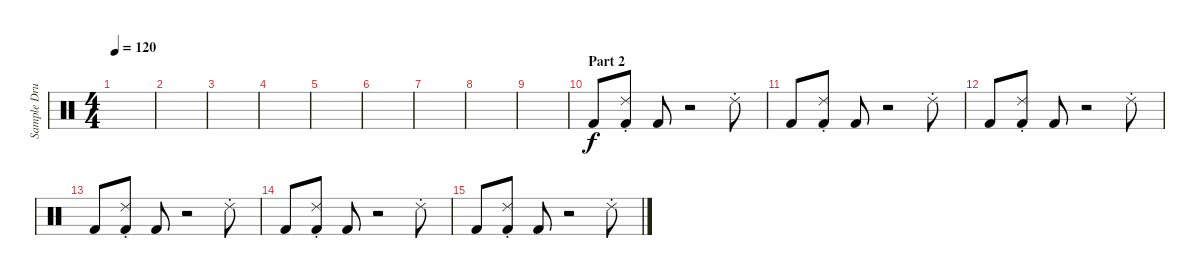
\track ("Sample Drums" "Sample Dru") {instrument percussion}
\staff {score}
\articulation defaults
\ts (4 4)
\tempo 120
\clef neutral
\ks c
|
|
|
|
|
|
|
|
|
\section ("" "Part 2")
"Kick (hit) 2".8 ("Ride (choke) 2" "Kick (hit) 2").8 "Kick (hit) 2".8 r.2 "Ride (choke) 2".8 |
"Kick (hit) 2".8 ("Ride (choke) 2" "Kick (hit) 2").8 "Kick (hit) 2".8 r.2 "Ride (choke) 2".8 |
"Kick (hit) 2".8 ("Ride (choke) 2" "Kick (hit) 2").8 "Kick (hit) 2".8 r.2 "Ride (choke) 2".8 |
"Kick (hit) 2".8 ("Ride (choke) 2" "Kick (hit) 2").8 "Kick (hit) 2".8 r.2 "Ride (choke) 2".8 |
"Kick (hit) 2".8 ("Ride (choke) 2" "Kick (hit) 2").8 "Kick (hit) 2".8 r.2 "Ride (choke) 2".8 |
"Kick (hit) 2".8 ("Ride (choke) 2" "Kick (hit) 2").8 "Kick (hit) 2".8 r.2 "Ride (choke) 2".8
